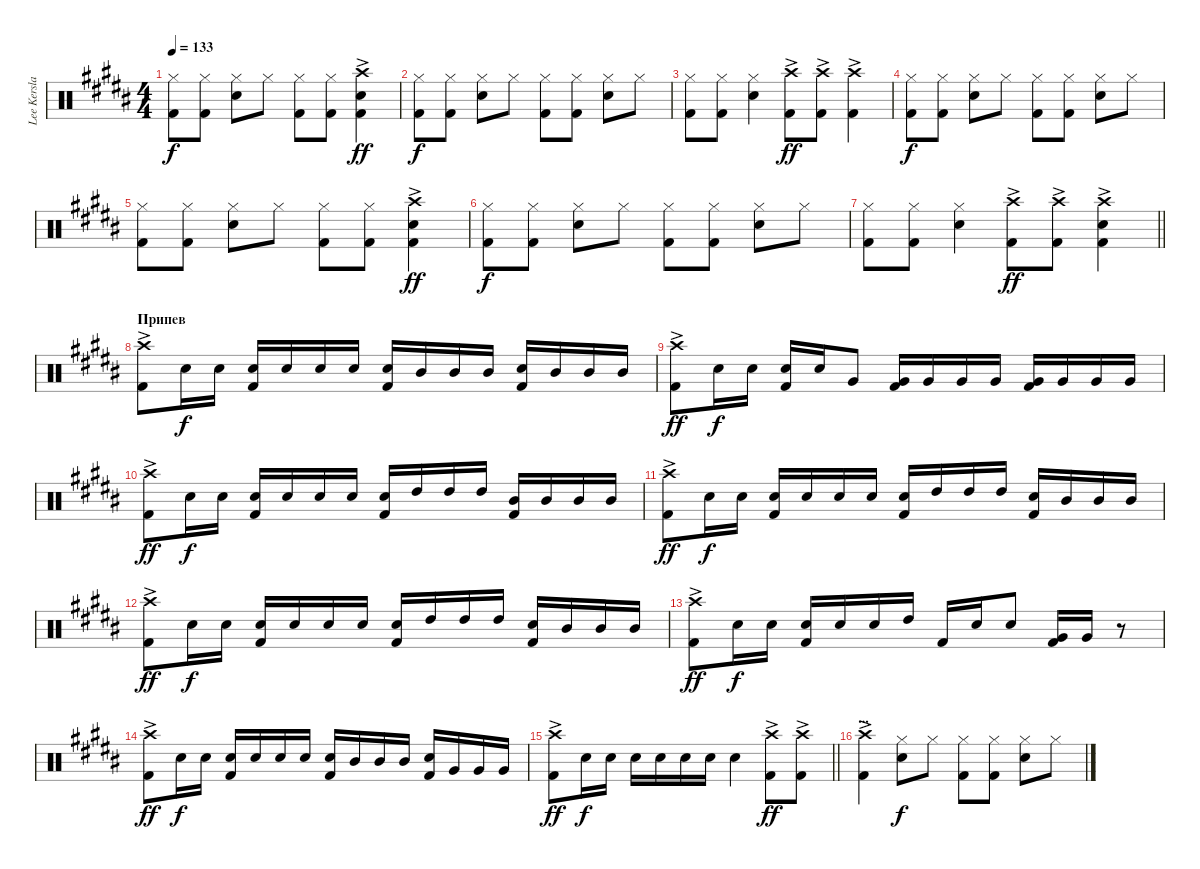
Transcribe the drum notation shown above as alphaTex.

\track ("Lee Kerslake" "Lee Kersla") {instrument percussion}
\staff {score}
\articulation defaults
\ts (4 4)
\tempo 133
\clef neutral
\ks b
("Hi-Hat (closed)" "Kick (hit) 2").8{dy f} ("Hi-Hat (closed)" "Kick (hit) 2").8 ("Snare (hit) 2" "Hi-Hat (closed)").8 "Hi-Hat (closed)".8 ("Hi-Hat (closed)" "Kick (hit) 2").8 ("Hi-Hat (closed)" "Kick (hit) 2").8 ("Snare (hit) 2" "Crash high (hit)"{ac} "Kick (hit) 2").4{dy ff} |
("Hi-Hat (closed)" "Kick (hit) 2").8{dy f} ("Hi-Hat (closed)" "Kick (hit) 2").8 ("Snare (hit) 2" "Hi-Hat (closed)").8 "Hi-Hat (closed)".8 ("Hi-Hat (closed)" "Kick (hit) 2").8 ("Hi-Hat (closed)" "Kick (hit) 2").8 ("Snare (hit) 2" "Hi-Hat (closed)").8 "Hi-Hat (closed)".8 |
("Hi-Hat (closed)" "Kick (hit) 2").8 ("Hi-Hat (closed)" "Kick (hit) 2").8 ("Snare (hit) 2" "Hi-Hat (closed)").4 ("Kick (hit) 2" "Crash high (hit)"{ac}).8{dy ff} ("Kick (hit) 2" "Crash high (hit)"{ac}).8 ("Kick (hit) 2" "Crash high (hit)"{ac}).4 |
("Hi-Hat (closed)" "Kick (hit) 2").8{dy f} ("Hi-Hat (closed)" "Kick (hit) 2").8 ("Snare (hit) 2" "Hi-Hat (closed)").8 "Hi-Hat (closed)".8 ("Hi-Hat (closed)" "Kick (hit) 2").8 ("Hi-Hat (closed)" "Kick (hit) 2").8 ("Snare (hit) 2" "Hi-Hat (closed)").8 "Hi-Hat (closed)".8 |
("Hi-Hat (closed)" "Kick (hit) 2").8 ("Hi-Hat (closed)" "Kick (hit) 2").8 ("Snare (hit) 2" "Hi-Hat (closed)").8 "Hi-Hat (closed)".8 ("Hi-Hat (closed)" "Kick (hit) 2").8 ("Hi-Hat (closed)" "Kick (hit) 2").8 ("Snare (hit) 2" "Crash high (hit)"{ac} "Kick (hit) 2").4{dy ff} |
("Hi-Hat (closed)" "Kick (hit) 2").8{dy f} ("Hi-Hat (closed)" "Kick (hit) 2").8 ("Snare (hit) 2" "Hi-Hat (closed)").8 "Hi-Hat (closed)".8 ("Hi-Hat (closed)" "Kick (hit) 2").8 ("Hi-Hat (closed)" "Kick (hit) 2").8 ("Snare (hit) 2" "Hi-Hat (closed)").8 "Hi-Hat (closed)".8 |
\barLineRight lightlight
("Hi-Hat (closed)" "Kick (hit) 2").8 ("Hi-Hat (closed)" "Kick (hit) 2").8 ("Snare (hit) 2" "Hi-Hat (closed)").4 ("Kick (hit) 2" "Crash high (hit)"{ac}).8{dy ff} ("Kick (hit) 2" "Crash high (hit)"{ac}).8 ("Kick (hit) 2" "Crash high (hit)"{ac} "Snare (hit) 2").4 |
\section ("" "Припев")
("Crash high (hit)"{ac} "Kick (hit) 2").8 "Snare (hit) 2".16{dy f} "Snare (hit) 2".16 ("Snare (hit) 2" "Kick (hit) 2").16 "Snare (hit) 2".16 "Snare (hit) 2".16 "Snare (hit) 2".16 ("Kick (hit) 2" "Snare (hit) 2").16 "Mid Tom (hit)".16 "Mid Tom (hit)".16 "Mid Tom (hit)".16 ("Kick (hit) 2" "Snare (hit) 2").16 "Mid Tom (hit)".16 "Mid Tom (hit)".16 "Mid Tom (hit)".16 |
("Kick (hit) 2" "Crash high (hit)"{ac}).8{dy ff} "Snare (hit) 2".16{dy f} "Snare (hit) 2".16 ("Snare (hit) 2" "Kick (hit) 2").16 "Snare (hit) 2".16 "Very Low Tom (hit)".8 ("Very Low Tom (hit)" "Kick (hit) 2").16 "Very Low Tom (hit)".16 "Very Low Tom (hit)".16 "Very Low Tom (hit)".16 ("Very Low Tom (hit)" "Kick (hit) 2").16 "Very Low Tom (hit)".16 "Very Low Tom (hit)".16 "Very Low Tom (hit)".16 |
("Crash high (hit)"{ac} "Kick (hit) 2").8{dy ff} "Snare (hit) 2".16{dy f} "Snare (hit) 2".16 ("Snare (hit) 2" "Kick (hit) 2").16 "Snare (hit) 2".16 "Snare (hit) 2".16 "Snare (hit) 2".16 ("Snare (hit) 2" "Kick (hit) 2").16 "High Tom (hit)".16 "High Tom (hit)".16 "High Tom (hit)".16 ("Kick (hit) 2" "Mid Tom (hit)").16 "Mid Tom (hit)".16 "Mid Tom (hit)".16 "Mid Tom (hit)".16 |
("Crash high (hit)"{ac} "Kick (hit) 2").8{dy ff} "Snare (hit) 2".16{dy f} "Snare (hit) 2".16 ("Snare (hit) 2" "Kick (hit) 2").16 "Snare (hit) 2".16 "Snare (hit) 2".16 "Snare (hit) 2".16 ("Snare (hit) 2" "Kick (hit) 2").16 "High Tom (hit)".16 "High Tom (hit)".16 "High Tom (hit)".16 ("Snare (hit) 2" "Kick (hit) 2").16 "Mid Tom (hit)".16 "Mid Tom (hit)".16 "Mid Tom (hit)".16 |
("Crash high (hit)"{ac} "Kick (hit) 2").8{dy ff} "Snare (hit) 2".16{dy f} "Snare (hit) 2".16 ("Snare (hit) 2" "Kick (hit) 2").16 "Snare (hit) 2".16 "Snare (hit) 2".16 "Snare (hit) 2".16 ("Snare (hit) 2" "Kick (hit) 2").16 "High Tom (hit)".16 "High Tom (hit)".16 "High Tom (hit)".16 ("Snare (hit) 2" "Kick (hit) 2").16 "Mid Tom (hit)".16 "Mid Tom (hit)".16 "Mid Tom (hit)".16 |
("Crash high (hit)"{ac} "Kick (hit) 2").8{dy ff} "Snare (hit) 2".16{dy f} "Snare (hit) 2".16 ("Snare (hit) 2" "Kick (hit) 2").16 "Snare (hit) 2".16 "Snare (hit) 2".16 "High Tom (hit)".16 "Kick (hit) 2".16 "Snare (hit) 2".16 "Snare (hit) 2".8 ("Very Low Tom (hit)" "Kick (hit) 2").16 "Very Low Tom (hit)".16 r.8 |
("Crash high (hit)"{ac} "Kick (hit) 2").8{dy ff} "Snare (hit) 2".16{dy f} "Snare (hit) 2".16 ("Snare (hit) 2" "Kick (hit) 2").16 "Snare (hit) 2".16 "Snare (hit) 2".16 "Snare (hit) 2".16 ("Kick (hit) 2" "Snare (hit) 2").16 "Mid Tom (hit)".16 "Mid Tom (hit)".16 "Mid Tom (hit)".16 ("Kick (hit) 2" "Snare (hit) 2").16 "Very Low Tom (hit)".16 "Very Low Tom (hit)".16 "Very Low Tom (hit)".16 |
\barLineRight lightlight
("Crash high (hit)"{ac} "Kick (hit) 2").8{dy ff} "Snare (hit) 2".16{dy f} "Snare (hit) 2".16 "Snare (hit) 2".16 "Snare (hit) 2".16 "Snare (hit) 2".16 "Snare (hit) 2".16 "Snare (hit) 2".4 ("Crash high (hit)"{ac} "Kick (hit) 2").8{dy ff} ("Crash high (hit)"{ac} "Kick (hit) 2").8 |
\section ("" "...")
("Crash high (hit)"{ac} "Kick (hit) 2").4 ("Snare (hit) 2" "Hi-Hat (closed)").8{dy f} "Hi-Hat (closed)".8 ("Hi-Hat (closed)" "Kick (hit) 2").8 ("Hi-Hat (closed)" "Kick (hit) 2").8 ("Snare (hit) 2" "Hi-Hat (closed)").8 "Hi-Hat (closed)".8
